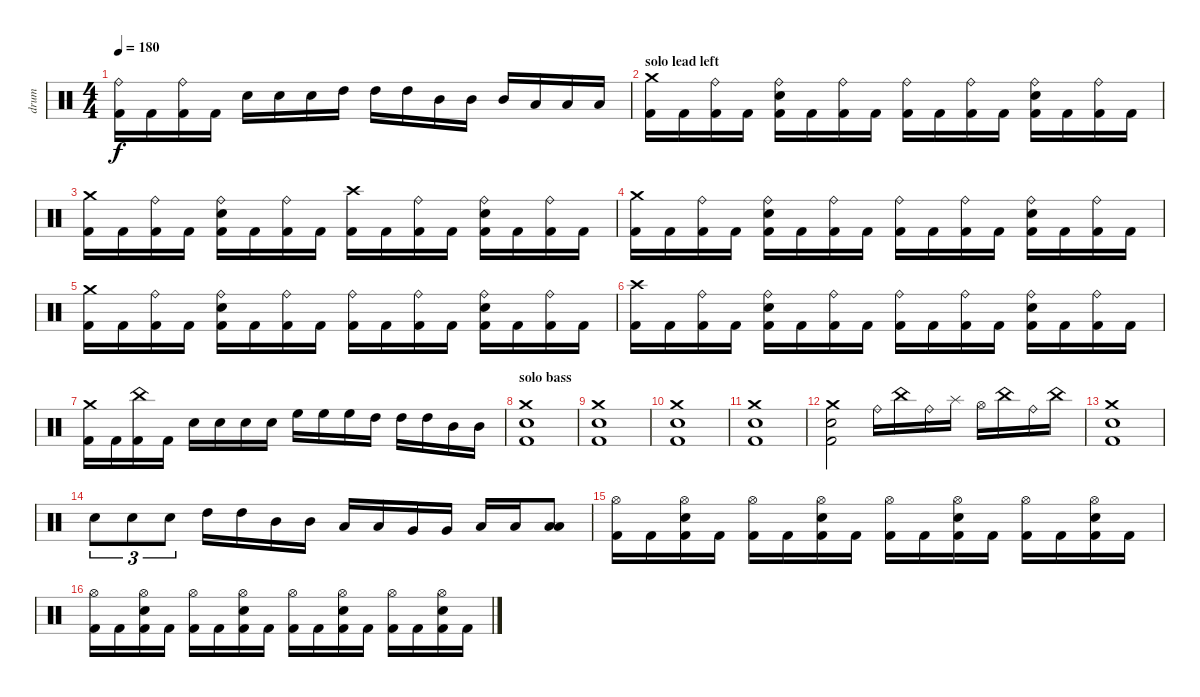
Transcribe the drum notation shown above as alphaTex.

\track ("drum" "drum") {instrument percussion}
\staff {score}
\articulation defaults
\ts (4 4)
\tempo 180
\clef neutral
\ks c
("Ride (bell)" "Kick (hit) 2").16{dy f} "Kick (hit) 2".16 ("Ride (bell)" "Kick (hit) 2").16 "Kick (hit) 2".16 "Electric Snare (hit)".16 "Electric Snare (hit)".16 "Electric Snare (hit)".16 "High Tom (hit)".16 "High Tom (hit)".16 "High Tom (hit)".16 "Mid Tom (hit)".16 "Mid Tom (hit)".16 "Mid Tom (hit)".16 "Low Tom (hit)".16 "Low Tom (hit)".16 "Low Tom (hit)".16 |
\section ("" "solo lead left")
("Crash medium (hit)" "Kick (hit) 2").16 "Kick (hit) 2".16 ("Ride (bell)" "Kick (hit) 2").16 "Kick (hit) 2".16 ("Ride (bell)" "Electric Snare (hit)" "Kick (hit) 2").16 "Kick (hit) 2".16 ("Ride (bell)" "Kick (hit) 2").16 "Kick (hit) 2".16 ("Ride (bell)" "Kick (hit) 2").16 "Kick (hit) 2".16 ("Ride (bell)" "Kick (hit) 2").16 "Kick (hit) 2".16 ("Ride (bell)" "Electric Snare (hit)" "Kick (hit) 2").16 "Kick (hit) 2".16 ("Ride (bell)" "Kick (hit) 2").16 "Kick (hit) 2".16 |
("Crash medium (hit)" "Kick (hit) 2").16 "Kick (hit) 2".16 ("Ride (bell)" "Kick (hit) 2").16 "Kick (hit) 2".16 ("Ride (bell)" "Electric Snare (hit)" "Kick (hit) 2").16 "Kick (hit) 2".16 ("Ride (bell)" "Kick (hit) 2").16 "Kick (hit) 2".16 ("Crash high (hit)" "Kick (hit) 2").16 "Kick (hit) 2".16 ("Ride (bell)" "Kick (hit) 2").16 "Kick (hit) 2".16 ("Ride (bell)" "Electric Snare (hit)" "Kick (hit) 2").16 "Kick (hit) 2".16 ("Ride (bell)" "Kick (hit) 2").16 "Kick (hit) 2".16 |
("Crash medium (hit)" "Kick (hit) 2").16 "Kick (hit) 2".16 ("Ride (bell)" "Kick (hit) 2").16 "Kick (hit) 2".16 ("Ride (bell)" "Electric Snare (hit)" "Kick (hit) 2").16 "Kick (hit) 2".16 ("Ride (bell)" "Kick (hit) 2").16 "Kick (hit) 2".16 ("Ride (bell)" "Kick (hit) 2").16 "Kick (hit) 2".16 ("Ride (bell)" "Kick (hit) 2").16 "Kick (hit) 2".16 ("Ride (bell)" "Electric Snare (hit)" "Kick (hit) 2").16 "Kick (hit) 2".16 ("Ride (bell)" "Kick (hit) 2").16 "Kick (hit) 2".16 |
("Crash medium (hit)" "Kick (hit) 2").16 "Kick (hit) 2".16 ("Ride (bell)" "Kick (hit) 2").16 "Kick (hit) 2".16 ("Ride (bell)" "Electric Snare (hit)" "Kick (hit) 2").16 "Kick (hit) 2".16 ("Ride (bell)" "Kick (hit) 2").16 "Kick (hit) 2".16 ("Ride (bell)" "Kick (hit) 2").16 "Kick (hit) 2".16 ("Ride (bell)" "Kick (hit) 2").16 "Kick (hit) 2".16 ("Ride (bell)" "Electric Snare (hit)" "Kick (hit) 2").16 "Kick (hit) 2".16 ("Ride (bell)" "Kick (hit) 2").16 "Kick (hit) 2".16 |
("Crash high (hit)" "Kick (hit) 2").16 "Kick (hit) 2".16 ("Ride (bell)" "Kick (hit) 2").16 "Kick (hit) 2".16 ("Ride (bell)" "Electric Snare (hit)" "Kick (hit) 2").16 "Kick (hit) 2".16 ("Ride (bell)" "Kick (hit) 2").16 "Kick (hit) 2".16 ("Ride (bell)" "Kick (hit) 2").16 "Kick (hit) 2".16 ("Ride (bell)" "Kick (hit) 2").16 "Kick (hit) 2".16 ("Ride (bell)" "Electric Snare (hit)" "Kick (hit) 2").16 "Kick (hit) 2".16 ("Ride (bell)" "Kick (hit) 2").16 "Kick (hit) 2".16 |
("Crash medium (hit)" "Kick (hit) 2").16 "Kick (hit) 2".16 ("China (hit)" "Kick (hit) 2").16 "Kick (hit) 2".16 "Electric Snare (hit)".16 "Electric Snare (hit)".16 "Electric Snare (hit)".16 "Electric Snare (hit)".16 "High Floor Tom (hit)".16 "High Floor Tom (hit)".16 "High Floor Tom (hit)".16 "High Tom (hit)".16 "High Tom (hit)".16 "High Tom (hit)".16 "Mid Tom (hit)".16 "Mid Tom (hit)".16 |
\section ("" "solo bass")
("Crash medium (hit)" "Electric Snare (hit)" "Kick (hit) 2").1 |
("Crash medium (hit)" "Electric Snare (hit)" "Kick (hit) 2").1 |
("Crash medium (hit)" "Electric Snare (hit)" "Kick (hit) 2").1 |
("Crash medium (hit)" "Electric Snare (hit)" "Kick (hit) 2").1 |
("Crash medium (hit)" "Electric Snare (hit)" "Kick (hit) 2").2 "Ride (bell)".16 "China (hit)".16 "Ride (bell)".16 "Splash (hit)".16 "Hi-Hat (open)".16 "China (hit)".16 "Ride (bell)".16 "China (hit)".16 |
("Crash medium (hit)" "Electric Snare (hit)" "Kick (hit) 2").1 |
"Electric Snare (hit)".8{tu (3 2)} "Electric Snare (hit)".8{tu (3 2)} "Electric Snare (hit)".8{tu (3 2)} "High Tom (hit)".16 "High Tom (hit)".16 "Mid Tom (hit)".16 "Mid Tom (hit)".16 "Low Tom (hit)".16 "Low Tom (hit)".16 "Very Low Tom (hit)".16 "Very Low Tom (hit)".16 "Low Floor Tom (hit)".16 "Low Floor Tom (hit)".16 ("Low Floor Tom (hit)" "Low Floor Tom (hit)").8 |
("Hi-Hat (open)" "Kick (hit) 2").16 "Kick (hit) 2".16 ("Hi-Hat (open)" "Electric Snare (hit)" "Kick (hit) 2").16 "Kick (hit) 2".16 ("Hi-Hat (open)" "Kick (hit) 2").16 "Kick (hit) 2".16 ("Hi-Hat (open)" "Electric Snare (hit)" "Kick (hit) 2").16 "Kick (hit) 2".16 ("Hi-Hat (open)" "Kick (hit) 2").16 "Kick (hit) 2".16 ("Hi-Hat (open)" "Electric Snare (hit)" "Kick (hit) 2").16 "Kick (hit) 2".16 ("Hi-Hat (open)" "Kick (hit) 2").16 "Kick (hit) 2".16 ("Hi-Hat (open)" "Electric Snare (hit)" "Kick (hit) 2").16 "Kick (hit) 2".16 |
("Hi-Hat (open)" "Kick (hit) 2").16 "Kick (hit) 2".16 ("Hi-Hat (open)" "Electric Snare (hit)" "Kick (hit) 2").16 "Kick (hit) 2".16 ("Hi-Hat (open)" "Kick (hit) 2").16 "Kick (hit) 2".16 ("Hi-Hat (open)" "Electric Snare (hit)" "Kick (hit) 2").16 "Kick (hit) 2".16 ("Hi-Hat (open)" "Kick (hit) 2").16 "Kick (hit) 2".16 ("Hi-Hat (open)" "Electric Snare (hit)" "Kick (hit) 2").16 "Kick (hit) 2".16 ("Hi-Hat (open)" "Kick (hit) 2").16 "Kick (hit) 2".16 ("Hi-Hat (open)" "Electric Snare (hit)" "Kick (hit) 2").16 "Kick (hit) 2".16
